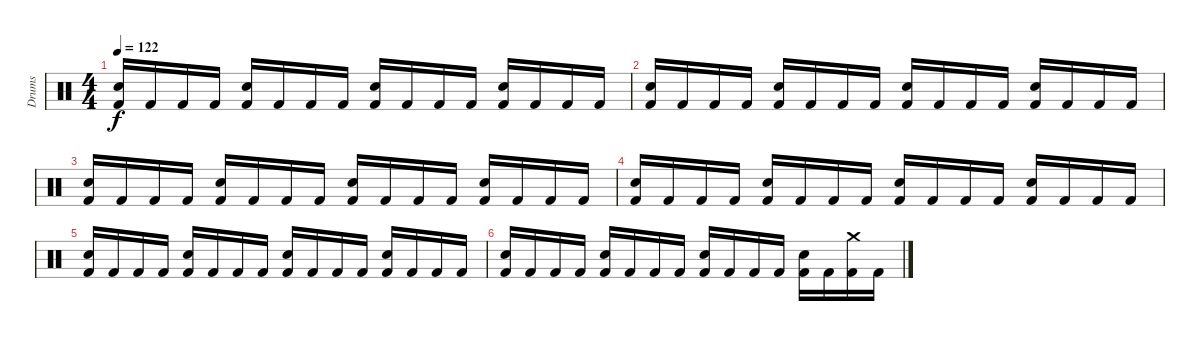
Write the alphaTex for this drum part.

\track ("Drums" "Drums") {instrument percussion}
\staff {score}
\articulation defaults
\ts (4 4)
\tempo 122
\clef neutral
\ks c
("Electric Snare (hit)" "Kick (hit) 2").16{dy f} "Kick (hit) 2".16 "Kick (hit) 2".16 "Kick (hit) 2".16 ("Electric Snare (hit)" "Kick (hit) 2").16 "Kick (hit) 2".16 "Kick (hit) 2".16 "Kick (hit) 2".16 ("Electric Snare (hit)" "Kick (hit) 2").16 "Kick (hit) 2".16 "Kick (hit) 2".16 "Kick (hit) 2".16 ("Electric Snare (hit)" "Kick (hit) 2").16 "Kick (hit) 2".16 "Kick (hit) 2".16 "Kick (hit) 2".16 |
("Electric Snare (hit)" "Kick (hit) 2").16 "Kick (hit) 2".16 "Kick (hit) 2".16 "Kick (hit) 2".16 ("Electric Snare (hit)" "Kick (hit) 2").16 "Kick (hit) 2".16 "Kick (hit) 2".16 "Kick (hit) 2".16 ("Electric Snare (hit)" "Kick (hit) 2").16 "Kick (hit) 2".16 "Kick (hit) 2".16 "Kick (hit) 2".16 ("Electric Snare (hit)" "Kick (hit) 2").16 "Kick (hit) 2".16 "Kick (hit) 2".16 "Kick (hit) 2".16 |
("Electric Snare (hit)" "Kick (hit) 2").16 "Kick (hit) 2".16 "Kick (hit) 2".16 "Kick (hit) 2".16 ("Electric Snare (hit)" "Kick (hit) 2").16 "Kick (hit) 2".16 "Kick (hit) 2".16 "Kick (hit) 2".16 ("Electric Snare (hit)" "Kick (hit) 2").16 "Kick (hit) 2".16 "Kick (hit) 2".16 "Kick (hit) 2".16 ("Electric Snare (hit)" "Kick (hit) 2").16 "Kick (hit) 2".16 "Kick (hit) 2".16 "Kick (hit) 2".16 |
("Electric Snare (hit)" "Kick (hit) 2").16 "Kick (hit) 2".16 "Kick (hit) 2".16 "Kick (hit) 2".16 ("Electric Snare (hit)" "Kick (hit) 2").16 "Kick (hit) 2".16 "Kick (hit) 2".16 "Kick (hit) 2".16 ("Electric Snare (hit)" "Kick (hit) 2").16 "Kick (hit) 2".16 "Kick (hit) 2".16 "Kick (hit) 2".16 ("Electric Snare (hit)" "Kick (hit) 2").16 "Kick (hit) 2".16 "Kick (hit) 2".16 "Kick (hit) 2".16 |
("Electric Snare (hit)" "Kick (hit) 2").16 "Kick (hit) 2".16 "Kick (hit) 2".16 "Kick (hit) 2".16 ("Electric Snare (hit)" "Kick (hit) 2").16 "Kick (hit) 2".16 "Kick (hit) 2".16 "Kick (hit) 2".16 ("Electric Snare (hit)" "Kick (hit) 2").16 "Kick (hit) 2".16 "Kick (hit) 2".16 "Kick (hit) 2".16 ("Electric Snare (hit)" "Kick (hit) 2").16 "Kick (hit) 2".16 "Kick (hit) 2".16 "Kick (hit) 2".16 |
("Electric Snare (hit)" "Kick (hit) 2").16 "Kick (hit) 2".16 "Kick (hit) 2".16 "Kick (hit) 2".16 ("Electric Snare (hit)" "Kick (hit) 2").16 "Kick (hit) 2".16 "Kick (hit) 2".16 "Kick (hit) 2".16 ("Electric Snare (hit)" "Kick (hit) 2").16 "Kick (hit) 2".16 "Kick (hit) 2".16 "Kick (hit) 2".16 ("Electric Snare (hit)" "Kick (hit) 2").16 "Kick (hit) 2".16 ("Crash medium (hit)" "Kick (hit) 2").16 "Kick (hit) 2".16
